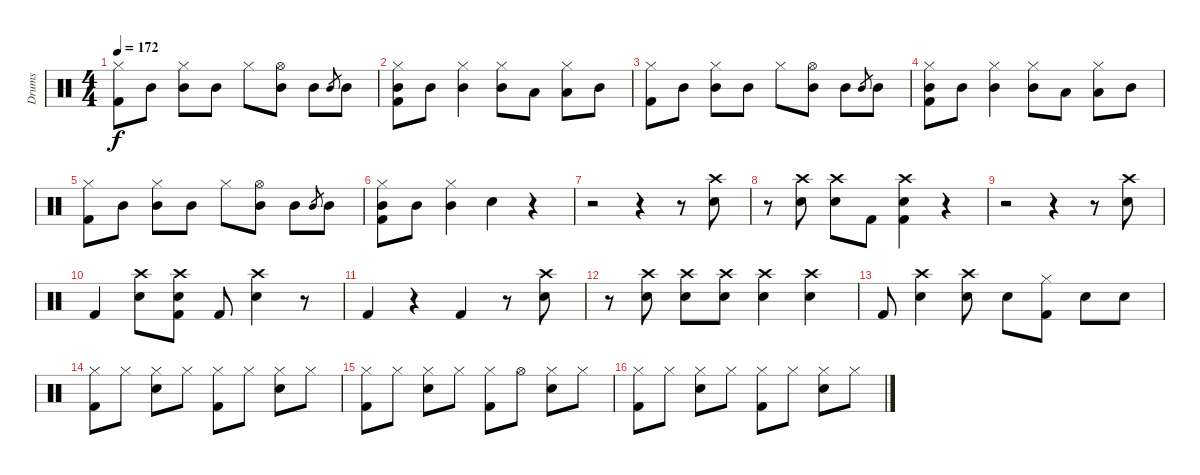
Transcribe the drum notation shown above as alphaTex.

\track ("Drums" "Drums") {instrument percussion}
\staff {score}
\articulation defaults
\ts (4 4)
\tempo 172
\clef neutral
\ks c
("Hi-Hat (closed)" "Kick (hit) 2").8{dy f} "Mid Tom (hit)".8 ("Hi-Hat (closed)" "Mid Tom (hit)").8 "Mid Tom (hit)".8 "Hi-Hat (closed)".8 ("Hi-Hat (open)" "Mid Tom (hit)").8 "Mid Tom (hit)".8 "Mid Tom (hit)".8{gr} "Mid Tom (hit)".8 |
("Hi-Hat (closed)" "Mid Tom (hit)" "Kick (hit) 2").8 "Mid Tom (hit)".8 ("Hi-Hat (closed)" "Mid Tom (hit)").4 ("Hi-Hat (closed)" "Mid Tom (hit)").8 "Low Tom (hit)".8 ("Hi-Hat (closed)" "Low Tom (hit)").8 "Mid Tom (hit)".8 |
("Hi-Hat (closed)" "Kick (hit) 2").8 "Mid Tom (hit)".8 ("Hi-Hat (closed)" "Mid Tom (hit)").8 "Mid Tom (hit)".8 "Hi-Hat (closed)".8 ("Hi-Hat (open)" "Mid Tom (hit)").8 "Mid Tom (hit)".8 "Mid Tom (hit)".8{gr} "Mid Tom (hit)".8 |
("Hi-Hat (closed)" "Mid Tom (hit)" "Kick (hit) 2").8 "Mid Tom (hit)".8 ("Hi-Hat (closed)" "Mid Tom (hit)").4 ("Hi-Hat (closed)" "Mid Tom (hit)").8 "Low Tom (hit)".8 ("Hi-Hat (closed)" "Low Tom (hit)").8 "Mid Tom (hit)".8 |
("Hi-Hat (closed)" "Kick (hit) 2").8 "Mid Tom (hit)".8 ("Hi-Hat (closed)" "Mid Tom (hit)").8 "Mid Tom (hit)".8 "Hi-Hat (closed)".8 ("Hi-Hat (open)" "Mid Tom (hit)").8 "Mid Tom (hit)".8 "Mid Tom (hit)".8{gr} "Mid Tom (hit)".8 |
("Hi-Hat (closed)" "Mid Tom (hit)" "Kick (hit) 2").8 "Mid Tom (hit)".8 ("Hi-Hat (closed)" "Mid Tom (hit)").4 "Electric Snare (hit)".4 r.4 |
r.2 r.4 r.8 ("Crash high (hit)" "Electric Snare (hit)").8 |
r.8 ("Crash high (hit)" "Electric Snare (hit)").8 ("Crash high (hit)" "Electric Snare (hit)").8 "Kick (hit) 2".8 ("Crash high (hit)" "Electric Snare (hit)" "Kick (hit) 2").4 r.4 |
r.2 r.4 r.8 ("Crash high (hit)" "Electric Snare (hit)").8 |
"Kick (hit) 2".4 ("Crash high (hit)" "Electric Snare (hit)").8 ("Crash high (hit)" "Electric Snare (hit)" "Kick (hit) 2").8 "Kick (hit) 2".8 ("Crash high (hit)" "Electric Snare (hit)").4 r.8 |
"Kick (hit) 2".4 r.4 "Kick (hit) 2".4 r.8 ("Crash high (hit)" "Electric Snare (hit)").8 |
r.8 ("Crash high (hit)" "Electric Snare (hit)").8 ("Crash high (hit)" "Electric Snare (hit)").8 ("Crash high (hit)" "Electric Snare (hit)").8 ("Crash high (hit)" "Electric Snare (hit)").4 ("Crash high (hit)" "Electric Snare (hit)").4 |
"Kick (hit) 2".8 ("Crash high (hit)" "Electric Snare (hit)").4 ("Crash high (hit)" "Electric Snare (hit)").8 "Electric Snare (hit)".8 ("Hi-Hat (closed)" "Kick (hit) 2").8 "Electric Snare (hit)".8 "Electric Snare (hit)".8 |
("Hi-Hat (closed)" "Kick (hit) 2").8 "Hi-Hat (closed)".8 ("Hi-Hat (closed)" "Electric Snare (hit)").8 "Hi-Hat (closed)".8 ("Hi-Hat (closed)" "Kick (hit) 2").8 "Hi-Hat (closed)".8 ("Hi-Hat (closed)" "Electric Snare (hit)").8 "Hi-Hat (closed)".8 |
("Hi-Hat (closed)" "Kick (hit) 2").8 "Hi-Hat (closed)".8 ("Hi-Hat (closed)" "Electric Snare (hit)").8 "Hi-Hat (closed)".8 ("Hi-Hat (closed)" "Kick (hit) 2").8 "Hi-Hat (open)".8 ("Hi-Hat (closed)" "Electric Snare (hit)").8 "Hi-Hat (closed)".8 |
("Hi-Hat (closed)" "Kick (hit) 2").8 "Hi-Hat (closed)".8 ("Hi-Hat (closed)" "Electric Snare (hit)").8 "Hi-Hat (closed)".8 ("Hi-Hat (closed)" "Kick (hit) 2").8 "Hi-Hat (closed)".8 ("Hi-Hat (closed)" "Electric Snare (hit)").8 "Hi-Hat (closed)".8
